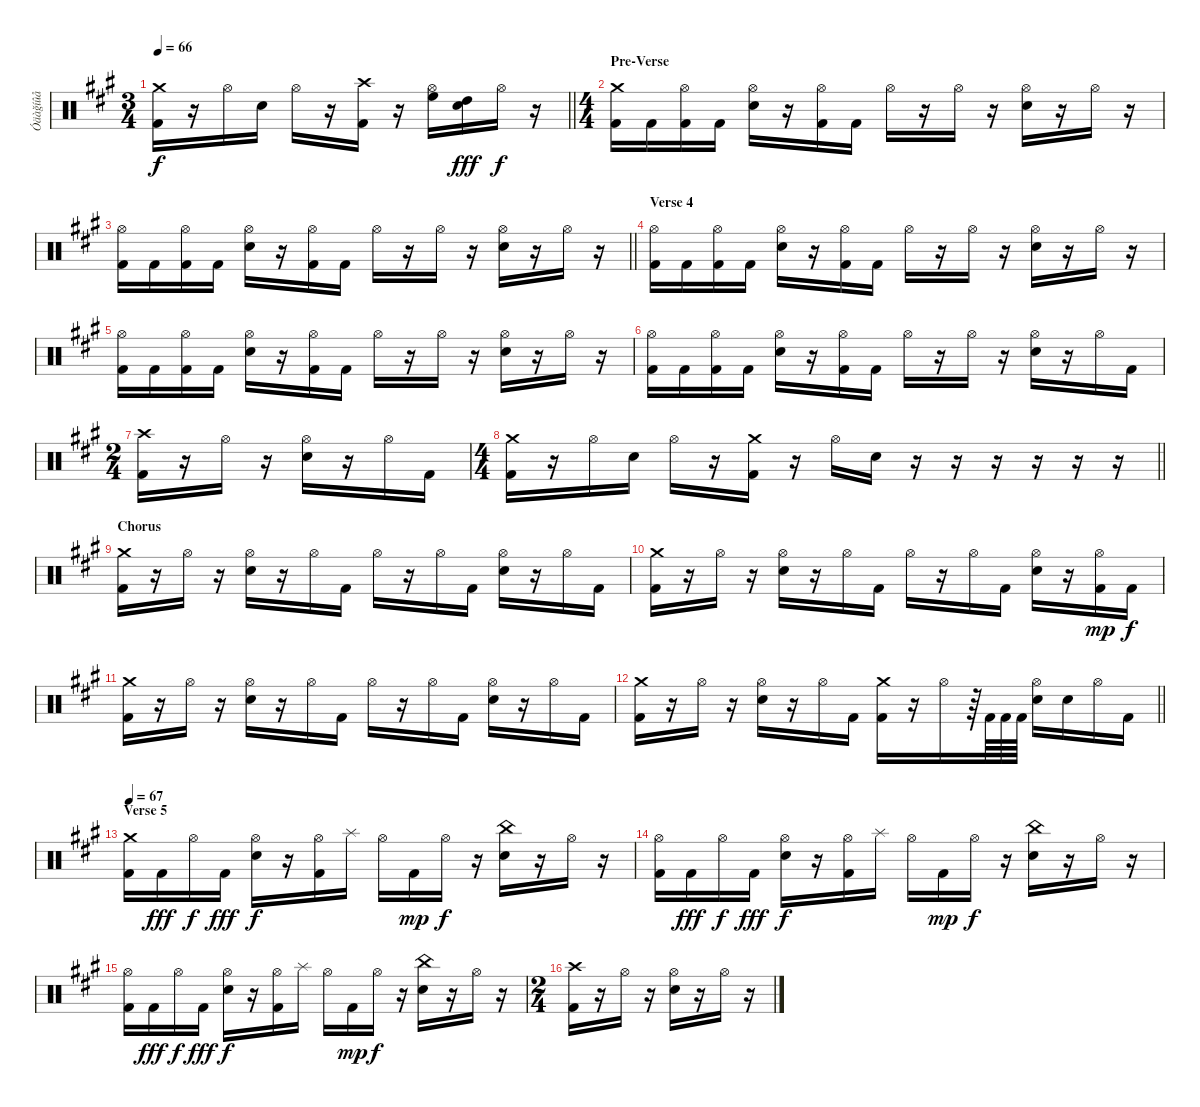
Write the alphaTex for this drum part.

\track ("Óäàğíûå" "Óäàğíûå") {instrument percussion}
\staff {score}
\articulation defaults
\ts (3 4)
\tempo 66
\clef neutral
\barLineRight lightlight
\ks a
("Crash medium (hit)" "Kick (hit) 2").16{dy f} r.16 "Hi-Hat (open)".16 "Electric Snare (hit)".16 "Hi-Hat (open)".16 r.16 ("Crash high (hit)" "Kick (hit) 2").16 r.16 ("Hi-Hat (open)" "High Floor Tom (hit)").16 ("High Tom (hit)" "Electric Snare (hit)").16{dy fff} "Hi-Hat (open)".16{dy f} r.16 |
\ts (4 4)
\section ("" "Pre-Verse")
("Crash medium (hit)" "Kick (hit) 2").16 "Kick (hit) 2".16 ("Hi-Hat (open)" "Kick (hit) 2").16 "Kick (hit) 2".16 ("Hi-Hat (open)" "Electric Snare (hit)").16 r.16 ("Hi-Hat (open)" "Kick (hit) 2").16 "Kick (hit) 2".16 "Hi-Hat (open)".16 r.16 "Hi-Hat (open)".16 r.16 ("Hi-Hat (open)" "Electric Snare (hit)").16 r.16 "Hi-Hat (open)".16 r.16 |
\barLineRight lightlight
("Hi-Hat (open)" "Kick (hit) 2").16 "Kick (hit) 2".16 ("Hi-Hat (open)" "Kick (hit) 2").16 "Kick (hit) 2".16 ("Hi-Hat (open)" "Electric Snare (hit)").16 r.16 ("Hi-Hat (open)" "Kick (hit) 2").16 "Kick (hit) 2".16 "Hi-Hat (open)".16 r.16 "Hi-Hat (open)".16 r.16 ("Hi-Hat (open)" "Electric Snare (hit)").16 r.16 "Hi-Hat (open)".16 r.16 |
\section ("" "Verse 4")
("Hi-Hat (open)" "Kick (hit) 2").16 "Kick (hit) 2".16 ("Hi-Hat (open)" "Kick (hit) 2").16 "Kick (hit) 2".16 ("Hi-Hat (open)" "Electric Snare (hit)").16 r.16 ("Hi-Hat (open)" "Kick (hit) 2").16 "Kick (hit) 2".16 "Hi-Hat (open)".16 r.16 "Hi-Hat (open)".16 r.16 ("Hi-Hat (open)" "Electric Snare (hit)").16 r.16 "Hi-Hat (open)".16 r.16 |
("Hi-Hat (open)" "Kick (hit) 2").16 "Kick (hit) 2".16 ("Hi-Hat (open)" "Kick (hit) 2").16 "Kick (hit) 2".16 ("Hi-Hat (open)" "Electric Snare (hit)").16 r.16 ("Hi-Hat (open)" "Kick (hit) 2").16 "Kick (hit) 2".16 "Hi-Hat (open)".16 r.16 "Hi-Hat (open)".16 r.16 ("Hi-Hat (open)" "Electric Snare (hit)").16 r.16 "Hi-Hat (open)".16 r.16 |
("Hi-Hat (open)" "Kick (hit) 2").16 "Kick (hit) 2".16 ("Hi-Hat (open)" "Kick (hit) 2").16 "Kick (hit) 2".16 ("Hi-Hat (open)" "Electric Snare (hit)").16 r.16 ("Hi-Hat (open)" "Kick (hit) 2").16 "Kick (hit) 2".16 "Hi-Hat (open)".16 r.16 "Hi-Hat (open)".16 r.16 ("Hi-Hat (open)" "Electric Snare (hit)").16 r.16 "Hi-Hat (open)".16 "Kick (hit) 2".16 |
\ts (2 4)
("Crash high (hit)" "Kick (hit) 2").16 r.16 "Hi-Hat (open)".16 r.16 ("Hi-Hat (open)" "Electric Snare (hit)").16 r.16 "Hi-Hat (open)".16 "Kick (hit) 2".16 |
\ts (4 4)
\barLineRight lightlight
("Crash medium (hit)" "Kick (hit) 2").16 r.16 "Hi-Hat (open)".16 "Electric Snare (hit)".16 "Hi-Hat (open)".16 r.16 ("Crash medium (hit)" "Kick (hit) 2").16 r.16 "Hi-Hat (open)".16 "Electric Snare (hit)".16 r.16 r.16 r.16 r.16 r.16 r.16 |
\section ("" "Chorus")
("Crash medium (hit)" "Kick (hit) 2").16 r.16 "Hi-Hat (open)".16 r.16 ("Hi-Hat (open)" "Electric Snare (hit)").16 r.16 "Hi-Hat (open)".16 "Kick (hit) 2".16 "Hi-Hat (open)".16 r.16 "Hi-Hat (open)".16 "Kick (hit) 2".16 ("Hi-Hat (open)" "Electric Snare (hit)").16 r.16 "Hi-Hat (open)".16 "Kick (hit) 2".16 |
("Crash medium (hit)" "Kick (hit) 2").16 r.16 "Hi-Hat (open)".16 r.16 ("Hi-Hat (open)" "Electric Snare (hit)").16 r.16 "Hi-Hat (open)".16 "Kick (hit) 2".16 "Hi-Hat (open)".16 r.16 "Hi-Hat (open)".16 "Kick (hit) 2".16 ("Hi-Hat (open)" "Electric Snare (hit)").16 r.16 ("Hi-Hat (open)" "Kick (hit) 2").16{dy mp} "Kick (hit) 2".16{dy f} |
("Crash medium (hit)" "Kick (hit) 2").16 r.16 "Hi-Hat (open)".16 r.16 ("Hi-Hat (open)" "Electric Snare (hit)").16 r.16 "Hi-Hat (open)".16 "Kick (hit) 2".16 "Hi-Hat (open)".16 r.16 "Hi-Hat (open)".16 "Kick (hit) 2".16 ("Hi-Hat (open)" "Electric Snare (hit)").16 r.16 "Hi-Hat (open)".16 "Kick (hit) 2".16 |
\barLineRight lightlight
("Crash medium (hit)" "Kick (hit) 2").16 r.16 "Hi-Hat (open)".16 r.16 ("Hi-Hat (open)" "Electric Snare (hit)").16 r.16 "Hi-Hat (open)".16 "Kick (hit) 2".16 ("Crash medium (hit)" "Kick (hit) 2").16 r.16 "Hi-Hat (open)".16 r.64 "Kick (hit) 2".64 "Kick (hit) 2".64 "Kick (hit) 2".64 ("Hi-Hat (open)" "Electric Snare (hit)").16 "Electric Snare (hit)".16 "Hi-Hat (open)".16 "Kick (hit) 2".16 |
\section ("" "Verse 5")
\tempo 67
("Crash medium (hit)" "Kick (hit) 2").16 "Kick (hit) 2".16{dy fff} "Hi-Hat (open)".16{dy f} "Kick (hit) 2".16{dy fff} ("Hi-Hat (open)" "Electric Snare (hit)").16{dy f} r.16 ("Hi-Hat (open)" "Kick (hit) 2").16 "Splash (hit)".16 "Hi-Hat (open)".16 "Kick (hit) 2".16{dy mp} "Hi-Hat (open)".16{dy f} r.16 ("China (hit)" "Electric Snare (hit)").16 r.16 "Hi-Hat (open)".16 r.16 |
("Hi-Hat (open)" "Kick (hit) 2").16 "Kick (hit) 2".16{dy fff} "Hi-Hat (open)".16{dy f} "Kick (hit) 2".16{dy fff} ("Hi-Hat (open)" "Electric Snare (hit)").16{dy f} r.16 ("Hi-Hat (open)" "Kick (hit) 2").16 "Splash (hit)".16 "Hi-Hat (open)".16 "Kick (hit) 2".16{dy mp} "Hi-Hat (open)".16{dy f} r.16 ("China (hit)" "Electric Snare (hit)").16 r.16 "Hi-Hat (open)".16 r.16 |
("Hi-Hat (open)" "Kick (hit) 2").16 "Kick (hit) 2".16{dy fff} "Hi-Hat (open)".16{dy f} "Kick (hit) 2".16{dy fff} ("Hi-Hat (open)" "Electric Snare (hit)").16{dy f} r.16 ("Hi-Hat (open)" "Kick (hit) 2").16 "Splash (hit)".16 "Hi-Hat (open)".16 "Kick (hit) 2".16{dy mp} "Hi-Hat (open)".16{dy f} r.16 ("China (hit)" "Electric Snare (hit)").16 r.16 "Hi-Hat (open)".16 r.16 |
\ts (2 4)
("Crash high (hit)" "Kick (hit) 2").16 r.16 "Hi-Hat (open)".16 r.16 ("Hi-Hat (open)" "Electric Snare (hit)").16 r.16 "Hi-Hat (open)".16 r.16
